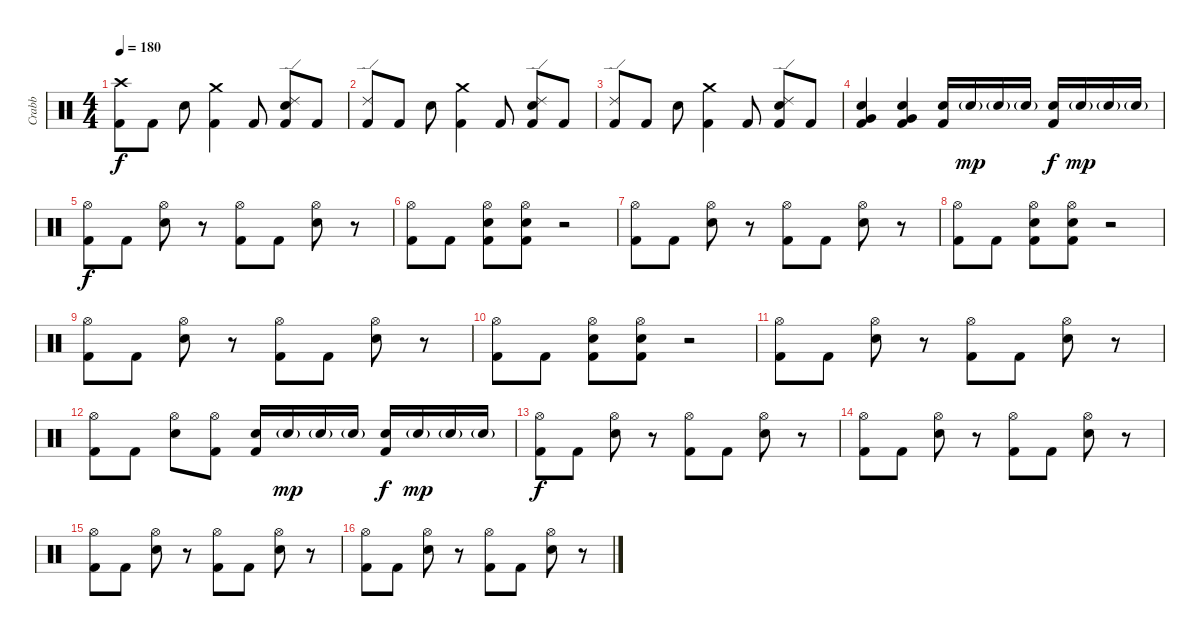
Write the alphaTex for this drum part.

\track ("Crabb" "Crabb") {instrument percussion}
\staff {score}
\articulation defaults
\ts (4 4)
\tempo 180
\clef neutral
\ks c
("Crash high (hit)" "Kick (hit) 2").8{dy f} "Kick (hit) 2".8 "Electric Snare (hit)".8 ("Crash medium (hit)" "Kick (hit) 2").4 "Kick (hit) 2".8 ("Ride (edge) 2" "Electric Snare (hit)" "Kick (hit) 2").8 "Kick (hit) 2".8 |
("Ride (edge) 2" "Kick (hit) 2").8 "Kick (hit) 2".8 "Electric Snare (hit)".8 ("Crash medium (hit)" "Kick (hit) 2").4 "Kick (hit) 2".8 ("Ride (edge) 2" "Electric Snare (hit)" "Kick (hit) 2").8 "Kick (hit) 2".8 |
("Ride (edge) 2" "Kick (hit) 2").8 "Kick (hit) 2".8 "Electric Snare (hit)".8 ("Crash medium (hit)" "Kick (hit) 2").4 "Kick (hit) 2".8 ("Ride (edge) 2" "Electric Snare (hit)" "Kick (hit) 2").8 "Kick (hit) 2".8 |
("Very Low Tom (hit)" "Electric Snare (hit)" "Kick (hit) 2").4 ("Very Low Tom (hit)" "Electric Snare (hit)" "Kick (hit) 2").4 ("Electric Snare (hit)" "Kick (hit) 2").16 "Electric Snare (hit)"{g}.16{dy mp} "Electric Snare (hit)"{g}.16 "Electric Snare (hit)"{g}.16 ("Electric Snare (hit)" "Kick (hit) 2").16{dy f} "Electric Snare (hit)"{g}.16{dy mp} "Electric Snare (hit)"{g}.16 "Electric Snare (hit)"{g}.16 |
("Hi-Hat (open)" "Kick (hit) 2").8{dy f} "Kick (hit) 2".8 ("Hi-Hat (open)" "Electric Snare (hit)").8 r.8 ("Hi-Hat (open)" "Kick (hit) 2").8 "Kick (hit) 2".8 ("Hi-Hat (open)" "Electric Snare (hit)").8 r.8 |
("Hi-Hat (open)" "Kick (hit) 2").8 "Kick (hit) 2".8 ("Hi-Hat (open)" "Electric Snare (hit)" "Kick (hit) 2").8 ("Hi-Hat (open)" "Electric Snare (hit)" "Kick (hit) 2").8 r.2 |
("Hi-Hat (open)" "Kick (hit) 2").8 "Kick (hit) 2".8 ("Hi-Hat (open)" "Electric Snare (hit)").8 r.8 ("Hi-Hat (open)" "Kick (hit) 2").8 "Kick (hit) 2".8 ("Hi-Hat (open)" "Electric Snare (hit)").8 r.8 |
("Hi-Hat (open)" "Kick (hit) 2").8 "Kick (hit) 2".8 ("Hi-Hat (open)" "Electric Snare (hit)" "Kick (hit) 2").8 ("Hi-Hat (open)" "Electric Snare (hit)" "Kick (hit) 2").8 r.2 |
("Hi-Hat (open)" "Kick (hit) 2").8 "Kick (hit) 2".8 ("Hi-Hat (open)" "Electric Snare (hit)").8 r.8 ("Hi-Hat (open)" "Kick (hit) 2").8 "Kick (hit) 2".8 ("Hi-Hat (open)" "Electric Snare (hit)").8 r.8 |
("Hi-Hat (open)" "Kick (hit) 2").8 "Kick (hit) 2".8 ("Hi-Hat (open)" "Electric Snare (hit)" "Kick (hit) 2").8 ("Hi-Hat (open)" "Electric Snare (hit)" "Kick (hit) 2").8 r.2 |
("Hi-Hat (open)" "Kick (hit) 2").8 "Kick (hit) 2".8 ("Hi-Hat (open)" "Electric Snare (hit)").8 r.8 ("Hi-Hat (open)" "Kick (hit) 2").8 "Kick (hit) 2".8 ("Hi-Hat (open)" "Electric Snare (hit)").8 r.8 |
("Hi-Hat (open)" "Kick (hit) 2").8 "Kick (hit) 2".8 ("Hi-Hat (open)" "Electric Snare (hit)").8 ("Hi-Hat (open)" "Kick (hit) 2").8 ("Electric Snare (hit)" "Kick (hit) 2").16 "Electric Snare (hit)"{g}.16{dy mp} "Electric Snare (hit)"{g}.16 "Electric Snare (hit)"{g}.16 ("Electric Snare (hit)" "Kick (hit) 2").16{dy f} "Electric Snare (hit)"{g}.16{dy mp} "Electric Snare (hit)"{g}.16 "Electric Snare (hit)"{g}.16 |
("Hi-Hat (open)" "Kick (hit) 2").8{dy f} "Kick (hit) 2".8 ("Hi-Hat (open)" "Electric Snare (hit)").8 r.8 ("Hi-Hat (open)" "Kick (hit) 2").8 "Kick (hit) 2".8 ("Hi-Hat (open)" "Electric Snare (hit)").8 r.8 |
("Hi-Hat (open)" "Kick (hit) 2").8 "Kick (hit) 2".8 ("Hi-Hat (open)" "Electric Snare (hit)").8 r.8 ("Hi-Hat (open)" "Kick (hit) 2").8 "Kick (hit) 2".8 ("Hi-Hat (open)" "Electric Snare (hit)").8 r.8 |
("Hi-Hat (open)" "Kick (hit) 2").8 "Kick (hit) 2".8 ("Hi-Hat (open)" "Electric Snare (hit)").8 r.8 ("Hi-Hat (open)" "Kick (hit) 2").8 "Kick (hit) 2".8 ("Hi-Hat (open)" "Electric Snare (hit)").8 r.8 |
("Hi-Hat (open)" "Kick (hit) 2").8 "Kick (hit) 2".8 ("Hi-Hat (open)" "Electric Snare (hit)").8 r.8 ("Hi-Hat (open)" "Kick (hit) 2").8 "Kick (hit) 2".8 ("Hi-Hat (open)" "Electric Snare (hit)").8 r.8
